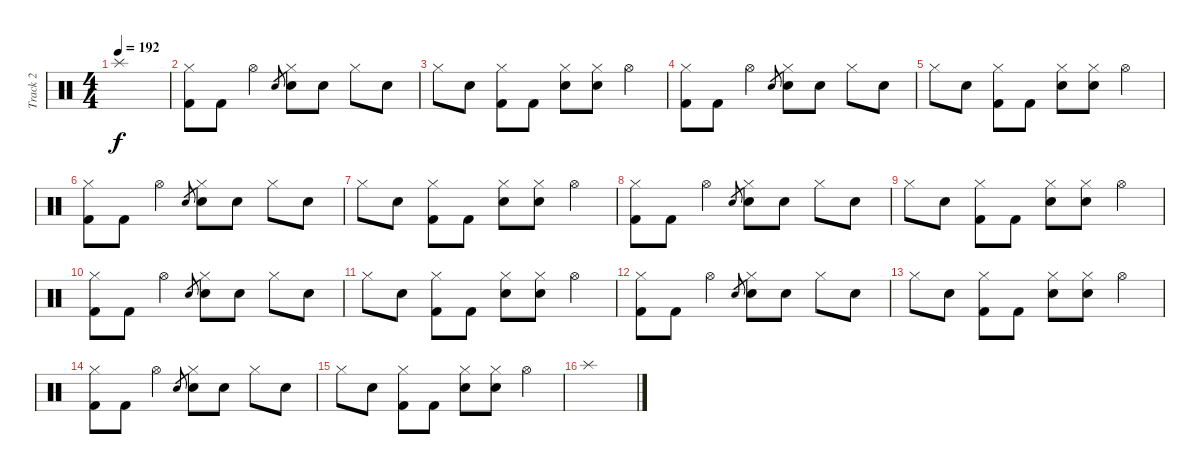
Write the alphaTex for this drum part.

\track ("Track 2" "Track 2") {instrument percussion}
\staff {score}
\articulation defaults
\ts (4 4)
\tempo 192
\clef neutral
\ks c "Splash (hit)"{t}.1{dy f}
|
("Hi-Hat (closed)" "Kick (hit) 2").8 "Kick (hit) 2".8 "Hi-Hat (open)".4 "Electric Snare (hit)".8{gr} ("Hi-Hat (closed)" "Electric Snare (hit)").8 "Electric Snare (hit)".8 "Hi-Hat (closed)".8 "Electric Snare (hit)".8 |
"Hi-Hat (closed)".8 "Electric Snare (hit)".8 ("Hi-Hat (closed)" "Kick (hit) 2").8 "Kick (hit) 2".8 ("Hi-Hat (closed)" "Electric Snare (hit)").8 ("Hi-Hat (closed)" "Electric Snare (hit)").8 "Hi-Hat (open)".4 |
("Hi-Hat (closed)" "Kick (hit) 2").8 "Kick (hit) 2".8 "Hi-Hat (open)".4 "Electric Snare (hit)".8{gr} ("Hi-Hat (closed)" "Electric Snare (hit)").8 "Electric Snare (hit)".8 "Hi-Hat (closed)".8 "Electric Snare (hit)".8 |
"Hi-Hat (closed)".8 "Electric Snare (hit)".8 ("Hi-Hat (closed)" "Kick (hit) 2").8 "Kick (hit) 2".8 ("Hi-Hat (closed)" "Electric Snare (hit)").8 ("Hi-Hat (closed)" "Electric Snare (hit)").8 "Hi-Hat (open)".4 |
("Hi-Hat (closed)" "Kick (hit) 2").8 "Kick (hit) 2".8 "Hi-Hat (open)".4 "Electric Snare (hit)".8{gr} ("Hi-Hat (closed)" "Electric Snare (hit)").8 "Electric Snare (hit)".8 "Hi-Hat (closed)".8 "Electric Snare (hit)".8 |
"Hi-Hat (closed)".8 "Electric Snare (hit)".8 ("Hi-Hat (closed)" "Kick (hit) 2").8 "Kick (hit) 2".8 ("Hi-Hat (closed)" "Electric Snare (hit)").8 ("Hi-Hat (closed)" "Electric Snare (hit)").8 "Hi-Hat (open)".4 |
("Hi-Hat (closed)" "Kick (hit) 2").8 "Kick (hit) 2".8 "Hi-Hat (open)".4 "Electric Snare (hit)".8{gr} ("Hi-Hat (closed)" "Electric Snare (hit)").8 "Electric Snare (hit)".8 "Hi-Hat (closed)".8 "Electric Snare (hit)".8 |
"Hi-Hat (closed)".8 "Electric Snare (hit)".8 ("Hi-Hat (closed)" "Kick (hit) 2").8 "Kick (hit) 2".8 ("Hi-Hat (closed)" "Electric Snare (hit)").8 ("Hi-Hat (closed)" "Electric Snare (hit)").8 "Hi-Hat (open)".4 |
("Hi-Hat (closed)" "Kick (hit) 2").8 "Kick (hit) 2".8 "Hi-Hat (open)".4 "Electric Snare (hit)".8{gr} ("Hi-Hat (closed)" "Electric Snare (hit)").8 "Electric Snare (hit)".8 "Hi-Hat (closed)".8 "Electric Snare (hit)".8 |
"Hi-Hat (closed)".8 "Electric Snare (hit)".8 ("Hi-Hat (closed)" "Kick (hit) 2").8 "Kick (hit) 2".8 ("Hi-Hat (closed)" "Electric Snare (hit)").8 ("Hi-Hat (closed)" "Electric Snare (hit)").8 "Hi-Hat (open)".4 |
("Hi-Hat (closed)" "Kick (hit) 2").8 "Kick (hit) 2".8 "Hi-Hat (open)".4 "Electric Snare (hit)".8{gr} ("Hi-Hat (closed)" "Electric Snare (hit)").8 "Electric Snare (hit)".8 "Hi-Hat (closed)".8 "Electric Snare (hit)".8 |
"Hi-Hat (closed)".8 "Electric Snare (hit)".8 ("Hi-Hat (closed)" "Kick (hit) 2").8 "Kick (hit) 2".8 ("Hi-Hat (closed)" "Electric Snare (hit)").8 ("Hi-Hat (closed)" "Electric Snare (hit)").8 "Hi-Hat (open)".4 |
("Hi-Hat (closed)" "Kick (hit) 2").8 "Kick (hit) 2".8 "Hi-Hat (open)".4 "Electric Snare (hit)".8{gr} ("Hi-Hat (closed)" "Electric Snare (hit)").8 "Electric Snare (hit)".8 "Hi-Hat (closed)".8 "Electric Snare (hit)".8 |
"Hi-Hat (closed)".8 "Electric Snare (hit)".8 ("Hi-Hat (closed)" "Kick (hit) 2").8 "Kick (hit) 2".8 ("Hi-Hat (closed)" "Electric Snare (hit)").8 ("Hi-Hat (closed)" "Electric Snare (hit)").8 "Hi-Hat (open)".4 |
"Splash (hit)".1
